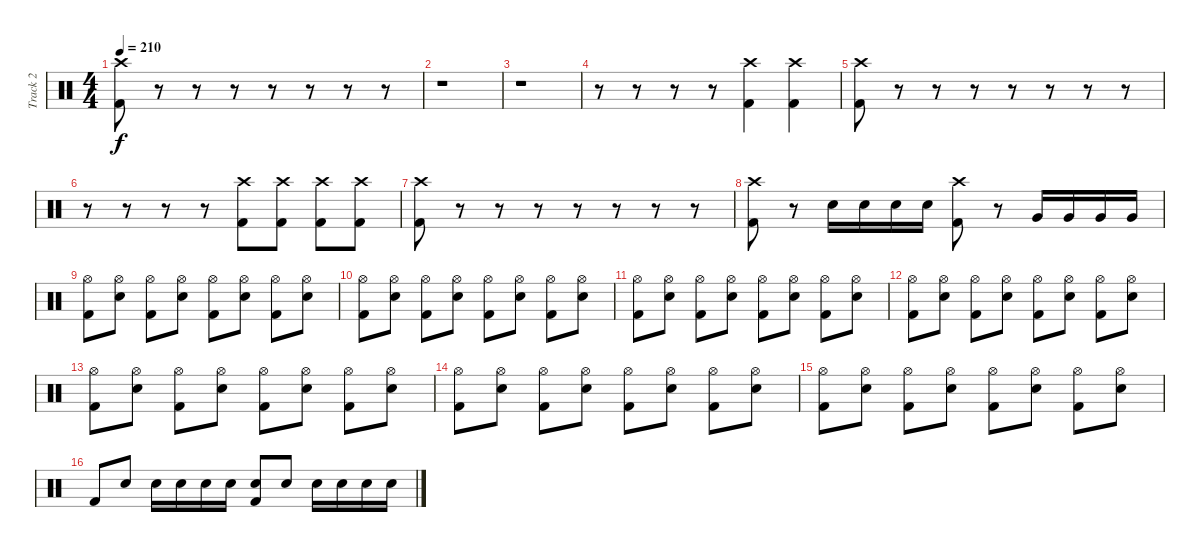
\track ("Track 2" "Track 2") {instrument percussion}
\staff {score}
\articulation defaults
\ts (4 4)
\tempo 210
\clef neutral
\ks c
("Crash high (hit)" "Kick (hit) 2").8{dy f} r.8 r.8 r.8 r.8 r.8 r.8 r.8 |
r.1 |
r.1 |
r.8 r.8 r.8 r.8 ("Crash high (hit)" "Kick (hit) 2").4 ("Crash high (hit)" "Kick (hit) 2").4 |
("Crash high (hit)" "Kick (hit) 2").8 r.8 r.8 r.8 r.8 r.8 r.8 r.8 |
r.8 r.8 r.8 r.8 ("Crash high (hit)" "Kick (hit) 2").8 ("Crash high (hit)" "Kick (hit) 2").8 ("Crash high (hit)" "Kick (hit) 2").8 ("Crash high (hit)" "Kick (hit) 2").8 |
("Crash high (hit)" "Kick (hit) 2").8 r.8 r.8 r.8 r.8 r.8 r.8 r.8 |
("Crash high (hit)" "Kick (hit) 2").8 r.8 "Snare (hit) 2".16 "Snare (hit) 2".16 "Snare (hit) 2".16 "Snare (hit) 2".16 ("Crash high (hit)" "Kick (hit) 2").8 r.8 "Very Low Tom (hit)".16 "Very Low Tom (hit)".16 "Very Low Tom (hit)".16 "Very Low Tom (hit)".16 |
("Hi-Hat (open)" "Kick (hit) 2").8 ("Hi-Hat (open)" "Snare (hit) 2").8 ("Hi-Hat (open)" "Kick (hit) 2").8 ("Hi-Hat (open)" "Snare (hit) 2").8 ("Hi-Hat (open)" "Kick (hit) 2").8 ("Hi-Hat (open)" "Snare (hit) 2").8 ("Hi-Hat (open)" "Kick (hit) 2").8 ("Hi-Hat (open)" "Snare (hit) 2").8 |
("Hi-Hat (open)" "Kick (hit) 2").8 ("Hi-Hat (open)" "Snare (hit) 2").8 ("Hi-Hat (open)" "Kick (hit) 2").8 ("Hi-Hat (open)" "Snare (hit) 2").8 ("Hi-Hat (open)" "Kick (hit) 2").8 ("Hi-Hat (open)" "Snare (hit) 2").8 ("Hi-Hat (open)" "Kick (hit) 2").8 ("Hi-Hat (open)" "Snare (hit) 2").8 |
("Hi-Hat (open)" "Kick (hit) 2").8 ("Hi-Hat (open)" "Snare (hit) 2").8 ("Hi-Hat (open)" "Kick (hit) 2").8 ("Hi-Hat (open)" "Snare (hit) 2").8 ("Hi-Hat (open)" "Kick (hit) 2").8 ("Hi-Hat (open)" "Snare (hit) 2").8 ("Hi-Hat (open)" "Kick (hit) 2").8 ("Hi-Hat (open)" "Snare (hit) 2").8 |
("Hi-Hat (open)" "Kick (hit) 2").8 ("Hi-Hat (open)" "Snare (hit) 2").8 ("Hi-Hat (open)" "Kick (hit) 2").8 ("Hi-Hat (open)" "Snare (hit) 2").8 ("Hi-Hat (open)" "Kick (hit) 2").8 ("Hi-Hat (open)" "Snare (hit) 2").8 ("Hi-Hat (open)" "Kick (hit) 2").8 ("Hi-Hat (open)" "Snare (hit) 2").8 |
("Hi-Hat (open)" "Kick (hit) 2").8 ("Hi-Hat (open)" "Snare (hit) 2").8 ("Hi-Hat (open)" "Kick (hit) 2").8 ("Hi-Hat (open)" "Snare (hit) 2").8 ("Hi-Hat (open)" "Kick (hit) 2").8 ("Hi-Hat (open)" "Snare (hit) 2").8 ("Hi-Hat (open)" "Kick (hit) 2").8 ("Hi-Hat (open)" "Snare (hit) 2").8 |
("Hi-Hat (open)" "Kick (hit) 2").8 ("Hi-Hat (open)" "Snare (hit) 2").8 ("Hi-Hat (open)" "Kick (hit) 2").8 ("Hi-Hat (open)" "Snare (hit) 2").8 ("Hi-Hat (open)" "Kick (hit) 2").8 ("Hi-Hat (open)" "Snare (hit) 2").8 ("Hi-Hat (open)" "Kick (hit) 2").8 ("Hi-Hat (open)" "Snare (hit) 2").8 |
("Hi-Hat (open)" "Kick (hit) 2").8 ("Hi-Hat (open)" "Snare (hit) 2").8 ("Hi-Hat (open)" "Kick (hit) 2").8 ("Hi-Hat (open)" "Snare (hit) 2").8 ("Hi-Hat (open)" "Kick (hit) 2").8 ("Hi-Hat (open)" "Snare (hit) 2").8 ("Hi-Hat (open)" "Kick (hit) 2").8 ("Hi-Hat (open)" "Snare (hit) 2").8 |
"Kick (hit) 2".8 "Snare (hit) 2".8 "Snare (hit) 2".16 "Snare (hit) 2".16 "Snare (hit) 2".16 "Snare (hit) 2".16 ("Snare (hit) 2" "Kick (hit) 2").8 "Snare (hit) 2".8 "Snare (hit) 2".16 "Snare (hit) 2".16 "Snare (hit) 2".16 "Snare (hit) 2".16
